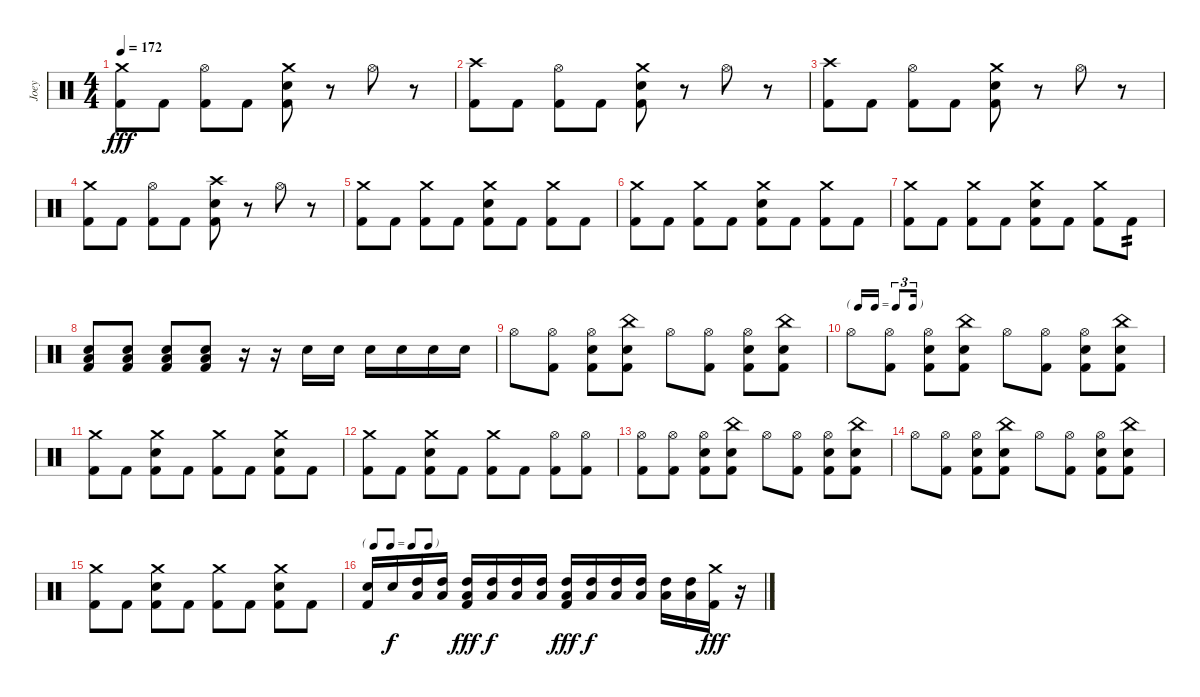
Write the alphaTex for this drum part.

\track ("Joey" "Joey") {instrument percussion}
\staff {score}
\articulation defaults
\ts (4 4)
\tempo 172
\clef neutral
\ks c
("Crash medium (hit)" "Kick (hit) 2").8{dy fff} "Kick (hit) 2".8 ("Hi-Hat (open)" "Kick (hit) 2").8 "Kick (hit) 2".8 ("Crash medium (hit)" "Snare (hit) 2" "Kick (hit) 2").8 r.8 "Hi-Hat (open)".8 r.8 |
("Crash high (hit)" "Kick (hit) 2").8 "Kick (hit) 2".8 ("Hi-Hat (open)" "Kick (hit) 2").8 "Kick (hit) 2".8 ("Crash medium (hit)" "Snare (hit) 2" "Kick (hit) 2").8 r.8 "Hi-Hat (open)".8 r.8 |
("Crash high (hit)" "Kick (hit) 2").8 "Kick (hit) 2".8 ("Hi-Hat (open)" "Kick (hit) 2").8 "Kick (hit) 2".8 ("Crash medium (hit)" "Snare (hit) 2" "Kick (hit) 2").8 r.8 "Hi-Hat (open)".8 r.8 |
("Crash medium (hit)" "Kick (hit) 2").8 "Kick (hit) 2".8 ("Hi-Hat (open)" "Kick (hit) 2").8 "Kick (hit) 2".8 ("Crash high (hit)" "Snare (hit) 2" "Kick (hit) 2").8 r.8 "Hi-Hat (open)".8 r.8 |
("Crash medium (hit)" "Kick (hit) 2").8 "Kick (hit) 2".8 ("Crash medium (hit)" "Kick (hit) 2").8 "Kick (hit) 2".8 ("Crash medium (hit)" "Snare (hit) 2" "Kick (hit) 2").8 "Kick (hit) 2".8 ("Crash medium (hit)" "Kick (hit) 2").8 "Kick (hit) 2".8 |
("Crash medium (hit)" "Kick (hit) 2").8 "Kick (hit) 2".8 ("Crash medium (hit)" "Kick (hit) 2").8 "Kick (hit) 2".8 ("Crash medium (hit)" "Snare (hit) 2" "Kick (hit) 2").8 "Kick (hit) 2".8 ("Crash medium (hit)" "Kick (hit) 2").8 "Kick (hit) 2".8 |
("Crash medium (hit)" "Kick (hit) 2").8 "Kick (hit) 2".8 ("Crash medium (hit)" "Kick (hit) 2").8 "Kick (hit) 2".8 ("Crash medium (hit)" "Snare (hit) 2" "Kick (hit) 2").8 "Kick (hit) 2".8 ("Crash medium (hit)" "Kick (hit) 2").8 "Kick (hit) 2".8{tp 2} |
("Snare (hit) 2" "Low Floor Tom (hit)" "Kick (hit) 2").8 ("Snare (hit) 2" "Low Floor Tom (hit)" "Kick (hit) 2").8 ("Snare (hit) 2" "Low Floor Tom (hit)" "Kick (hit) 2").8 ("Snare (hit) 2" "Low Floor Tom (hit)" "Kick (hit) 2").8 r.16 r.16 "Snare (hit) 2".16 "Snare (hit) 2".16 "Snare (hit) 2".16 "Snare (hit) 2".16 "Snare (hit) 2".16 "Snare (hit) 2".16 |
"Hi-Hat (open)".8 ("Hi-Hat (open)" "Kick (hit) 2").8 ("Hi-Hat (open)" "Snare (hit) 2" "Kick (hit) 2").8 ("China (hit)" "Snare (hit) 2" "Kick (hit) 2").8 "Hi-Hat (open)".8 ("Hi-Hat (open)" "Kick (hit) 2").8 ("Hi-Hat (open)" "Snare (hit) 2" "Kick (hit) 2").8 ("China (hit)" "Snare (hit) 2" "Kick (hit) 2").8 |
\tf triplet16th "Hi-Hat (open)".8
("Hi-Hat (open)" "Kick (hit) 2").8 ("Hi-Hat (open)" "Snare (hit) 2" "Kick (hit) 2").8 ("China (hit)" "Snare (hit) 2" "Kick (hit) 2").8 "Hi-Hat (open)".8 ("Hi-Hat (open)" "Kick (hit) 2").8 ("Hi-Hat (open)" "Snare (hit) 2" "Kick (hit) 2").8 ("China (hit)" "Snare (hit) 2" "Kick (hit) 2").8 |
("Crash medium (hit)" "Kick (hit) 2").8 "Kick (hit) 2".8 ("Crash medium (hit)" "Snare (hit) 2" "Kick (hit) 2").8 "Kick (hit) 2".8 ("Crash medium (hit)" "Kick (hit) 2").8 "Kick (hit) 2".8 ("Crash medium (hit)" "Snare (hit) 2" "Kick (hit) 2").8 "Kick (hit) 2".8 |
("Crash medium (hit)" "Kick (hit) 2").8 "Kick (hit) 2".8 ("Crash medium (hit)" "Snare (hit) 2" "Kick (hit) 2").8 "Kick (hit) 2".8 ("Crash medium (hit)" "Kick (hit) 2").8 "Kick (hit) 2".8 ("Hi-Hat (open)" "Kick (hit) 2").8 ("Hi-Hat (open)" "Kick (hit) 2").8 |
("Hi-Hat (open)" "Kick (hit) 2").8 ("Hi-Hat (open)" "Kick (hit) 2").8 ("Hi-Hat (open)" "Snare (hit) 2" "Kick (hit) 2").8 ("China (hit)" "Snare (hit) 2" "Kick (hit) 2").8 "Hi-Hat (open)".8 ("Hi-Hat (open)" "Kick (hit) 2").8 ("Hi-Hat (open)" "Snare (hit) 2" "Kick (hit) 2").8 ("China (hit)" "Snare (hit) 2" "Kick (hit) 2").8 |
"Hi-Hat (open)".8 ("Hi-Hat (open)" "Kick (hit) 2").8 ("Hi-Hat (open)" "Snare (hit) 2" "Kick (hit) 2").8 ("China (hit)" "Snare (hit) 2" "Kick (hit) 2").8 "Hi-Hat (open)".8 ("Hi-Hat (open)" "Kick (hit) 2").8 ("Hi-Hat (open)" "Snare (hit) 2" "Kick (hit) 2").8 ("China (hit)" "Snare (hit) 2" "Kick (hit) 2").8 |
("Crash medium (hit)" "Kick (hit) 2").8 "Kick (hit) 2".8 ("Crash medium (hit)" "Snare (hit) 2" "Kick (hit) 2").8 "Kick (hit) 2".8 ("Crash medium (hit)" "Kick (hit) 2").8 "Kick (hit) 2".8 ("Crash medium (hit)" "Snare (hit) 2" "Kick (hit) 2").8 "Kick (hit) 2".8 |
\tf none
("Snare (hit) 2" "Kick (hit) 2").16 "Snare (hit) 2".16{dy f} ("High Tom (hit)" "Low Tom (hit)").16 ("High Tom (hit)" "Low Tom (hit)").16 ("High Tom (hit)" "Low Tom (hit)" "Kick (hit) 2").16{dy fff} ("High Tom (hit)" "Low Tom (hit)").16{dy f} ("High Tom (hit)" "Low Floor Tom (hit)").16 ("High Tom (hit)" "Low Floor Tom (hit)").16 ("High Tom (hit)" "Low Floor Tom (hit)" "Kick (hit) 2").16{dy fff} ("High Tom (hit)" "Low Floor Tom (hit)").16{dy f} ("High Tom (hit)" "Low Floor Tom (hit)").16 ("High Tom (hit)" "Low Floor Tom (hit)").16 ("High Tom (hit)" "Low Floor Tom (hit)").16 ("High Tom (hit)" "Low Floor Tom (hit)").16 ("Crash medium (hit)" "Kick (hit) 2").16{dy fff} r.16
